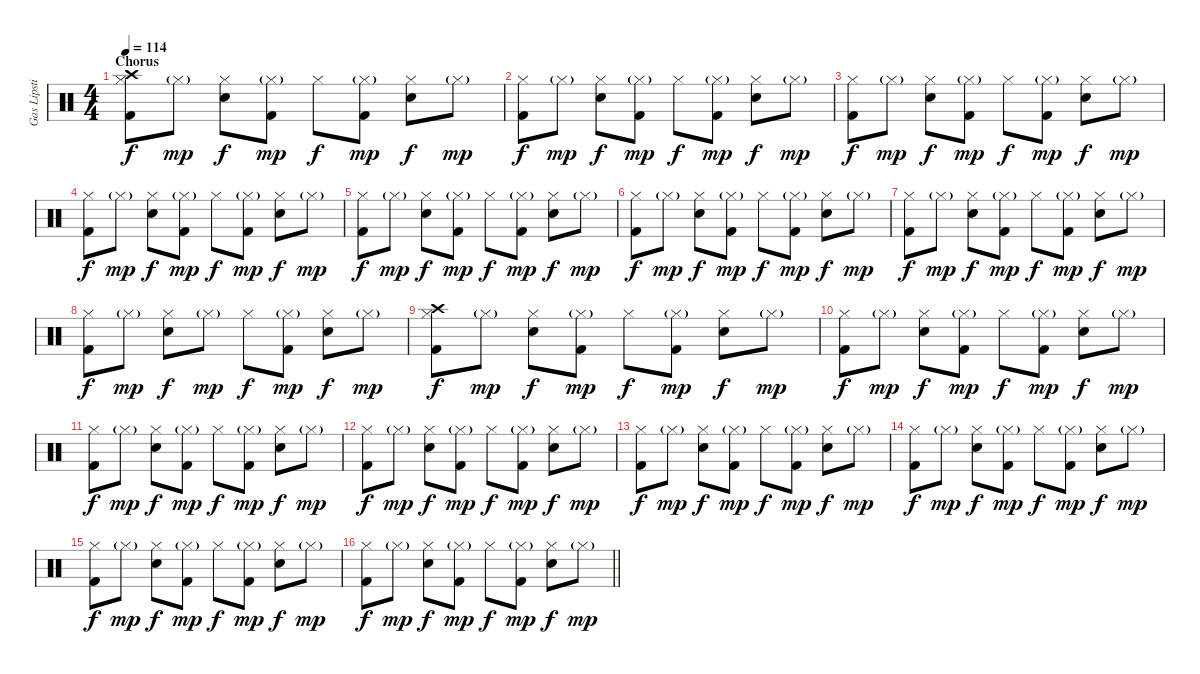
\track ("Gas Lipstick (Drums)" "Gas Lipsti") {instrument percussion}
\staff {score}
\articulation defaults
\ts (4 4)
\section ("" "Chorus")
\tempo 114
\clef neutral
\ks c
("Crash high (hit)" "Hi-Hat (closed)" "Kick (hit) 2").8{dy f} "Hi-Hat (closed)"{g}.8{dy mp} ("Hi-Hat (closed)" "Snare (hit) 2").8{dy f} ("Hi-Hat (closed)"{g} "Kick (hit) 2").8{dy mp} "Hi-Hat (closed)".8{dy f} ("Hi-Hat (closed)"{g} "Kick (hit) 2").8{dy mp} ("Hi-Hat (closed)" "Snare (hit) 2").8{dy f} "Hi-Hat (closed)"{g}.8{dy mp} |
("Hi-Hat (closed)" "Kick (hit) 2").8{dy f} "Hi-Hat (closed)"{g}.8{dy mp} ("Hi-Hat (closed)" "Snare (hit) 2").8{dy f} ("Hi-Hat (closed)"{g} "Kick (hit) 2").8{dy mp} "Hi-Hat (closed)".8{dy f} ("Hi-Hat (closed)"{g} "Kick (hit) 2").8{dy mp} ("Hi-Hat (closed)" "Snare (hit) 2").8{dy f} "Hi-Hat (closed)"{g}.8{dy mp} |
("Hi-Hat (closed)" "Kick (hit) 2").8{dy f} "Hi-Hat (closed)"{g}.8{dy mp} ("Hi-Hat (closed)" "Snare (hit) 2").8{dy f} ("Hi-Hat (closed)"{g} "Kick (hit) 2").8{dy mp} "Hi-Hat (closed)".8{dy f} ("Hi-Hat (closed)"{g} "Kick (hit) 2").8{dy mp} ("Hi-Hat (closed)" "Snare (hit) 2").8{dy f} "Hi-Hat (closed)"{g}.8{dy mp} |
("Hi-Hat (closed)" "Kick (hit) 2").8{dy f} "Hi-Hat (closed)"{g}.8{dy mp} ("Hi-Hat (closed)" "Snare (hit) 2").8{dy f} ("Hi-Hat (closed)"{g} "Kick (hit) 2").8{dy mp} "Hi-Hat (closed)".8{dy f} ("Hi-Hat (closed)"{g} "Kick (hit) 2").8{dy mp} ("Hi-Hat (closed)" "Snare (hit) 2").8{dy f} "Hi-Hat (closed)"{g}.8{dy mp} |
("Hi-Hat (closed)" "Kick (hit) 2").8{dy f} "Hi-Hat (closed)"{g}.8{dy mp} ("Hi-Hat (closed)" "Snare (hit) 2").8{dy f} ("Hi-Hat (closed)"{g} "Kick (hit) 2").8{dy mp} "Hi-Hat (closed)".8{dy f} ("Hi-Hat (closed)"{g} "Kick (hit) 2").8{dy mp} ("Hi-Hat (closed)" "Snare (hit) 2").8{dy f} "Hi-Hat (closed)"{g}.8{dy mp} |
("Hi-Hat (closed)" "Kick (hit) 2").8{dy f} "Hi-Hat (closed)"{g}.8{dy mp} ("Hi-Hat (closed)" "Snare (hit) 2").8{dy f} ("Hi-Hat (closed)"{g} "Kick (hit) 2").8{dy mp} "Hi-Hat (closed)".8{dy f} ("Hi-Hat (closed)"{g} "Kick (hit) 2").8{dy mp} ("Hi-Hat (closed)" "Snare (hit) 2").8{dy f} "Hi-Hat (closed)"{g}.8{dy mp} |
("Hi-Hat (closed)" "Kick (hit) 2").8{dy f} "Hi-Hat (closed)"{g}.8{dy mp} ("Hi-Hat (closed)" "Snare (hit) 2").8{dy f} ("Hi-Hat (closed)"{g} "Kick (hit) 2").8{dy mp} "Hi-Hat (closed)".8{dy f} ("Hi-Hat (closed)"{g} "Kick (hit) 2").8{dy mp} ("Hi-Hat (closed)" "Snare (hit) 2").8{dy f} "Hi-Hat (closed)"{g}.8{dy mp} |
("Hi-Hat (closed)" "Kick (hit) 2").8{dy f} "Hi-Hat (closed)"{g}.8{dy mp} ("Hi-Hat (closed)" "Snare (hit) 2").8{dy f} "Hi-Hat (closed)"{g}.8{dy mp} "Hi-Hat (closed)".8{dy f} ("Hi-Hat (closed)"{g} "Kick (hit) 2").8{dy mp} ("Hi-Hat (closed)" "Snare (hit) 2").8{dy f} "Hi-Hat (closed)"{g}.8{dy mp} |
("Crash high (hit)" "Hi-Hat (closed)" "Kick (hit) 2").8{dy f} "Hi-Hat (closed)"{g}.8{dy mp} ("Hi-Hat (closed)" "Snare (hit) 2").8{dy f} ("Hi-Hat (closed)"{g} "Kick (hit) 2").8{dy mp} "Hi-Hat (closed)".8{dy f} ("Hi-Hat (closed)"{g} "Kick (hit) 2").8{dy mp} ("Hi-Hat (closed)" "Snare (hit) 2").8{dy f} "Hi-Hat (closed)"{g}.8{dy mp} |
("Hi-Hat (closed)" "Kick (hit) 2").8{dy f} "Hi-Hat (closed)"{g}.8{dy mp} ("Hi-Hat (closed)" "Snare (hit) 2").8{dy f} ("Hi-Hat (closed)"{g} "Kick (hit) 2").8{dy mp} "Hi-Hat (closed)".8{dy f} ("Hi-Hat (closed)"{g} "Kick (hit) 2").8{dy mp} ("Hi-Hat (closed)" "Snare (hit) 2").8{dy f} "Hi-Hat (closed)"{g}.8{dy mp} |
("Hi-Hat (closed)" "Kick (hit) 2").8{dy f} "Hi-Hat (closed)"{g}.8{dy mp} ("Hi-Hat (closed)" "Snare (hit) 2").8{dy f} ("Hi-Hat (closed)"{g} "Kick (hit) 2").8{dy mp} "Hi-Hat (closed)".8{dy f} ("Hi-Hat (closed)"{g} "Kick (hit) 2").8{dy mp} ("Hi-Hat (closed)" "Snare (hit) 2").8{dy f} "Hi-Hat (closed)"{g}.8{dy mp} |
("Hi-Hat (closed)" "Kick (hit) 2").8{dy f} "Hi-Hat (closed)"{g}.8{dy mp} ("Hi-Hat (closed)" "Snare (hit) 2").8{dy f} ("Hi-Hat (closed)"{g} "Kick (hit) 2").8{dy mp} "Hi-Hat (closed)".8{dy f} ("Hi-Hat (closed)"{g} "Kick (hit) 2").8{dy mp} ("Hi-Hat (closed)" "Snare (hit) 2").8{dy f} "Hi-Hat (closed)"{g}.8{dy mp} |
("Hi-Hat (closed)" "Kick (hit) 2").8{dy f} "Hi-Hat (closed)"{g}.8{dy mp} ("Hi-Hat (closed)" "Snare (hit) 2").8{dy f} ("Hi-Hat (closed)"{g} "Kick (hit) 2").8{dy mp} "Hi-Hat (closed)".8{dy f} ("Hi-Hat (closed)"{g} "Kick (hit) 2").8{dy mp} ("Hi-Hat (closed)" "Snare (hit) 2").8{dy f} "Hi-Hat (closed)"{g}.8{dy mp} |
("Hi-Hat (closed)" "Kick (hit) 2").8{dy f} "Hi-Hat (closed)"{g}.8{dy mp} ("Hi-Hat (closed)" "Snare (hit) 2").8{dy f} ("Hi-Hat (closed)"{g} "Kick (hit) 2").8{dy mp} "Hi-Hat (closed)".8{dy f} ("Hi-Hat (closed)"{g} "Kick (hit) 2").8{dy mp} ("Hi-Hat (closed)" "Snare (hit) 2").8{dy f} "Hi-Hat (closed)"{g}.8{dy mp} |
("Hi-Hat (closed)" "Kick (hit) 2").8{dy f} "Hi-Hat (closed)"{g}.8{dy mp} ("Hi-Hat (closed)" "Snare (hit) 2").8{dy f} ("Hi-Hat (closed)"{g} "Kick (hit) 2").8{dy mp} "Hi-Hat (closed)".8{dy f} ("Hi-Hat (closed)"{g} "Kick (hit) 2").8{dy mp} ("Hi-Hat (closed)" "Snare (hit) 2").8{dy f} "Hi-Hat (closed)"{g}.8{dy mp} |
\barLineRight lightlight
("Hi-Hat (closed)" "Kick (hit) 2").8{dy f} "Hi-Hat (closed)"{g}.8{dy mp} ("Hi-Hat (closed)" "Snare (hit) 2").8{dy f} ("Hi-Hat (closed)"{g} "Kick (hit) 2").8{dy mp} "Hi-Hat (closed)".8{dy f} ("Hi-Hat (closed)"{g} "Kick (hit) 2").8{dy mp} ("Hi-Hat (closed)" "Snare (hit) 2").8{dy f} "Hi-Hat (closed)"{g}.8{dy mp}
